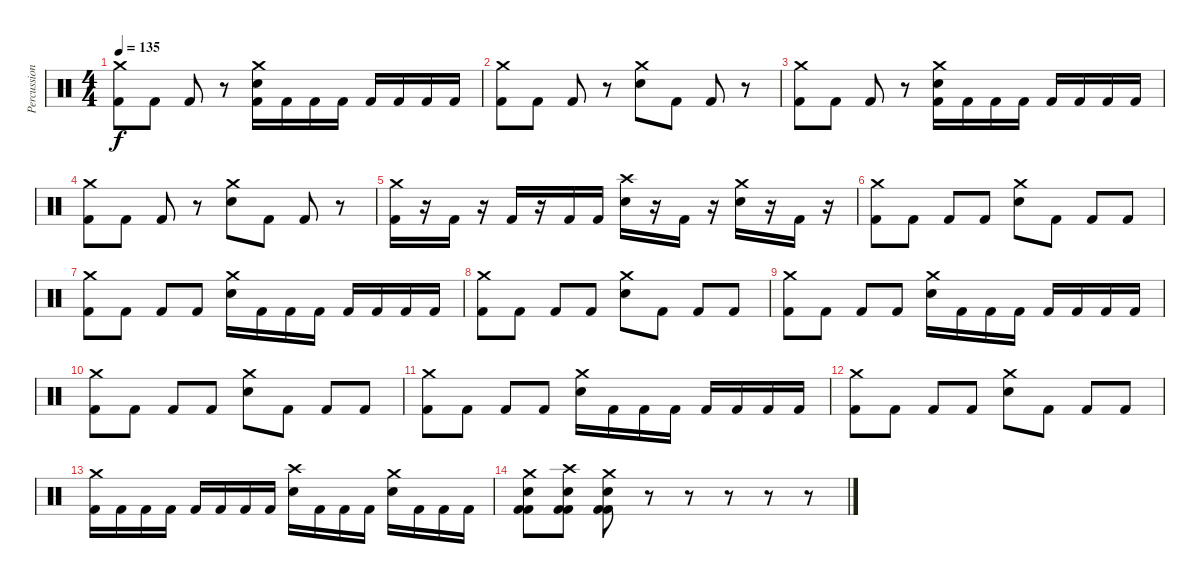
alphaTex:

\track ("Percussion" "Percussion") {instrument percussion}
\staff {score}
\articulation defaults
\ts (4 4)
\tempo 135
\clef neutral
\ks c
("Crash medium (hit)" "Kick (hit) 2").8{dy f} "Kick (hit) 2".8 "Kick (hit) 2".8 r.8 ("Crash medium (hit)" "Electric Snare (hit)" "Kick (hit) 2").16 "Kick (hit) 2".16 "Kick (hit) 2".16 "Kick (hit) 2".16 "Kick (hit) 2".16 "Kick (hit) 2".16 "Kick (hit) 2".16 "Kick (hit) 2".16 |
("Crash medium (hit)" "Kick (hit) 2").8 "Kick (hit) 2".8 "Kick (hit) 2".8 r.8 ("Crash medium (hit)" "Electric Snare (hit)").8 "Kick (hit) 2".8 "Kick (hit) 2".8 r.8 |
("Crash medium (hit)" "Kick (hit) 2").8 "Kick (hit) 2".8 "Kick (hit) 2".8 r.8 ("Crash medium (hit)" "Electric Snare (hit)" "Kick (hit) 2").16 "Kick (hit) 2".16 "Kick (hit) 2".16 "Kick (hit) 2".16 "Kick (hit) 2".16 "Kick (hit) 2".16 "Kick (hit) 2".16 "Kick (hit) 2".16 |
("Crash medium (hit)" "Kick (hit) 2").8 "Kick (hit) 2".8 "Kick (hit) 2".8 r.8 ("Crash medium (hit)" "Electric Snare (hit)").8 "Kick (hit) 2".8 "Kick (hit) 2".8 r.8 |
("Crash medium (hit)" "Kick (hit) 2").16 r.16 "Kick (hit) 2".16 r.16 "Kick (hit) 2".16 r.16 "Kick (hit) 2".16 "Kick (hit) 2".16 ("Crash high (hit)" "Electric Snare (hit)").16 r.16 "Kick (hit) 2".16 r.16 ("Crash medium (hit)" "Electric Snare (hit)").16 r.16 "Kick (hit) 2".16 r.16 |
("Crash medium (hit)" "Kick (hit) 2").8 "Kick (hit) 2".8 "Kick (hit) 2".8 "Kick (hit) 2".8 ("Crash medium (hit)" "Electric Snare (hit)").8 "Kick (hit) 2".8 "Kick (hit) 2".8 "Kick (hit) 2".8 |
("Crash medium (hit)" "Kick (hit) 2").8 "Kick (hit) 2".8 "Kick (hit) 2".8 "Kick (hit) 2".8 ("Crash medium (hit)" "Electric Snare (hit)").16 "Kick (hit) 2".16 "Kick (hit) 2".16 "Kick (hit) 2".16 "Kick (hit) 2".16 "Kick (hit) 2".16 "Kick (hit) 2".16 "Kick (hit) 2".16 |
("Crash medium (hit)" "Kick (hit) 2").8 "Kick (hit) 2".8 "Kick (hit) 2".8 "Kick (hit) 2".8 ("Crash medium (hit)" "Electric Snare (hit)").8 "Kick (hit) 2".8 "Kick (hit) 2".8 "Kick (hit) 2".8 |
("Crash medium (hit)" "Kick (hit) 2").8 "Kick (hit) 2".8 "Kick (hit) 2".8 "Kick (hit) 2".8 ("Crash medium (hit)" "Electric Snare (hit)").16 "Kick (hit) 2".16 "Kick (hit) 2".16 "Kick (hit) 2".16 "Kick (hit) 2".16 "Kick (hit) 2".16 "Kick (hit) 2".16 "Kick (hit) 2".16 |
("Crash medium (hit)" "Kick (hit) 2").8 "Kick (hit) 2".8 "Kick (hit) 2".8 "Kick (hit) 2".8 ("Crash medium (hit)" "Electric Snare (hit)").8 "Kick (hit) 2".8 "Kick (hit) 2".8 "Kick (hit) 2".8 |
("Crash medium (hit)" "Kick (hit) 2").8 "Kick (hit) 2".8 "Kick (hit) 2".8 "Kick (hit) 2".8 ("Crash medium (hit)" "Electric Snare (hit)").16 "Kick (hit) 2".16 "Kick (hit) 2".16 "Kick (hit) 2".16 "Kick (hit) 2".16 "Kick (hit) 2".16 "Kick (hit) 2".16 "Kick (hit) 2".16 |
("Crash medium (hit)" "Kick (hit) 2").8 "Kick (hit) 2".8 "Kick (hit) 2".8 "Kick (hit) 2".8 ("Crash medium (hit)" "Electric Snare (hit)").8 "Kick (hit) 2".8 "Kick (hit) 2".8 "Kick (hit) 2".8 |
("Crash medium (hit)" "Kick (hit) 2").16 "Kick (hit) 2".16 "Kick (hit) 2".16 "Kick (hit) 2".16 "Kick (hit) 2".16 "Kick (hit) 2".16 "Kick (hit) 2".16 "Kick (hit) 2".16 ("Crash high (hit)" "Electric Snare (hit)").16 "Kick (hit) 2".16 "Kick (hit) 2".16 "Kick (hit) 2".16 ("Crash medium (hit)" "Electric Snare (hit)").16 "Kick (hit) 2".16 "Kick (hit) 2".16 "Kick (hit) 2".16 |
("Crash medium (hit)" "Kick (hit) 2" "Kick (hit) 2" "Snare (hit) 2").8 ("Crash high (hit)" "Kick (hit) 2" "Kick (hit) 2" "Snare (hit) 2").8 ("Crash medium (hit)" "Kick (hit) 2" "Kick (hit) 2" "Snare (hit) 2").8 r.8 r.8 r.8 r.8 r.8
